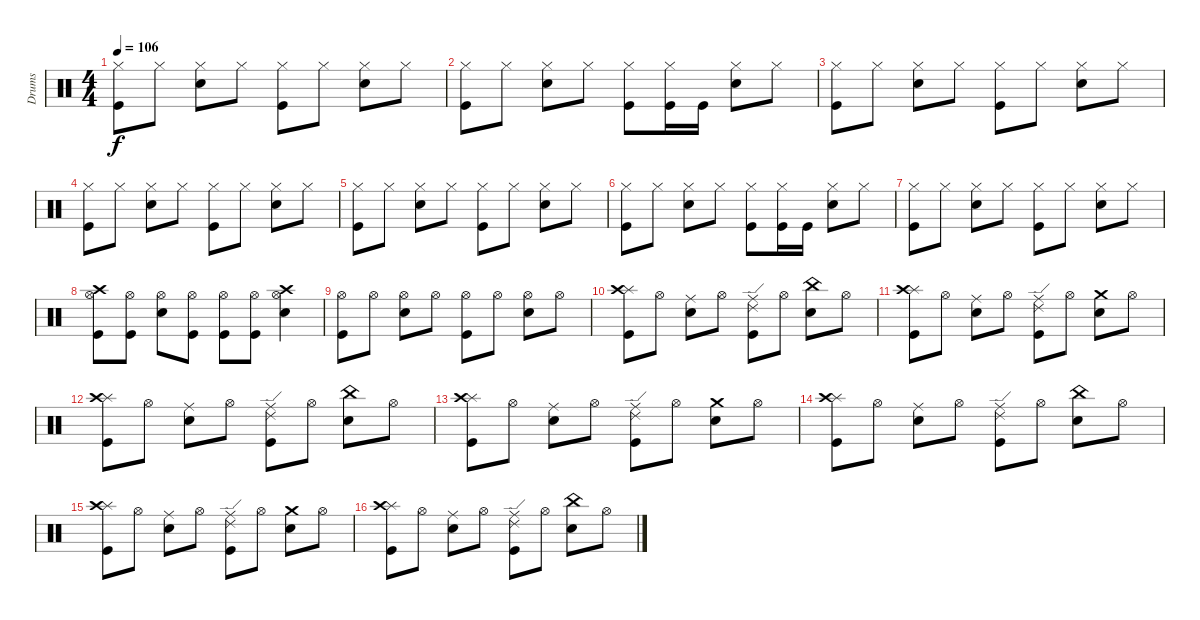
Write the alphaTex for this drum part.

\track ("Drums" "Drums") {instrument percussion}
\staff {score}
\articulation defaults
\ts (4 4)
\tempo 106
\clef neutral
\ks c
("Kick (hit)" "Hi-Hat (closed)").8{dy f volume 12} "Hi-Hat (closed)".8 ("Snare (hit) 2" "Hi-Hat (closed)").8 "Hi-Hat (closed)".8 ("Kick (hit)" "Hi-Hat (closed)").8 "Hi-Hat (closed)".8 ("Snare (hit) 2" "Hi-Hat (closed)").8 "Hi-Hat (closed)".8 |
("Kick (hit)" "Hi-Hat (closed)").8{volume 12} "Hi-Hat (closed)".8 ("Snare (hit) 2" "Hi-Hat (closed)").8 "Hi-Hat (closed)".8 ("Kick (hit)" "Hi-Hat (closed)").8 ("Kick (hit)" "Hi-Hat (closed)").16 "Kick (hit)".16 ("Snare (hit) 2" "Hi-Hat (closed)").8 "Hi-Hat (closed)".8 |
("Kick (hit)" "Hi-Hat (closed)").8{volume 12} "Hi-Hat (closed)".8 ("Snare (hit) 2" "Hi-Hat (closed)").8 "Hi-Hat (closed)".8 ("Kick (hit)" "Hi-Hat (closed)").8 "Hi-Hat (closed)".8 ("Snare (hit) 2" "Hi-Hat (closed)").8 "Hi-Hat (closed)".8 |
("Kick (hit)" "Hi-Hat (closed)").8{volume 12} "Hi-Hat (closed)".8 ("Snare (hit) 2" "Hi-Hat (closed)").8 "Hi-Hat (closed)".8 ("Kick (hit)" "Hi-Hat (closed)").8 "Hi-Hat (closed)".8 ("Snare (hit) 2" "Hi-Hat (closed)").8 "Hi-Hat (closed)".8 |
("Kick (hit)" "Hi-Hat (closed)").8{volume 12} "Hi-Hat (closed)".8 ("Snare (hit) 2" "Hi-Hat (closed)").8 "Hi-Hat (closed)".8 ("Kick (hit)" "Hi-Hat (closed)").8 "Hi-Hat (closed)".8 ("Snare (hit) 2" "Hi-Hat (closed)").8 "Hi-Hat (closed)".8 |
("Kick (hit)" "Hi-Hat (closed)").8{volume 12} "Hi-Hat (closed)".8 ("Snare (hit) 2" "Hi-Hat (closed)").8 "Hi-Hat (closed)".8 ("Kick (hit)" "Hi-Hat (closed)").8 ("Kick (hit)" "Hi-Hat (closed)").16 "Kick (hit)".16 ("Snare (hit) 2" "Hi-Hat (closed)").8 "Hi-Hat (closed)".8 |
("Kick (hit)" "Hi-Hat (closed)").8{volume 12} "Hi-Hat (closed)".8 ("Snare (hit) 2" "Hi-Hat (closed)").8 "Hi-Hat (closed)".8 ("Kick (hit)" "Hi-Hat (closed)").8 "Hi-Hat (closed)".8 ("Snare (hit) 2" "Hi-Hat (closed)").8 "Hi-Hat (closed)".8 |
("Kick (hit)" "Crash high (hit)" "Hi-Hat (open)").8{volume 12} ("Kick (hit)" "Hi-Hat (open)").8 ("Snare (hit) 2" "Hi-Hat (open)").8 ("Kick (hit)" "Hi-Hat (open)").8 ("Kick (hit)" "Hi-Hat (open)").8 ("Kick (hit)" "Hi-Hat (open)").8 ("Snare (hit) 2" "Crash high (hit)" "Hi-Hat (open)").4 |
("Kick (hit)" "Hi-Hat (open)").8{volume 12} "Hi-Hat (open)".8 ("Snare (hit) 2" "Hi-Hat (open)").8 "Hi-Hat (open)".8 ("Kick (hit)" "Hi-Hat (open)").8 "Hi-Hat (open)".8 ("Snare (hit) 2" "Hi-Hat (open)").8 "Hi-Hat (open)".8 |
("Kick (hit)" "Splash (hit)" "Crash high (hit)").8{volume 12} "Hi-Hat (open)".8 ("Snare (hit) 2" "Ride (middle)").8 "Hi-Hat (open)".8 ("Kick (hit)" "Ride (middle)" "Ride (edge) 2").8 "Hi-Hat (open)".8 ("Snare (hit) 2" "China (hit)").8 "Hi-Hat (open)".8 |
("Kick (hit)" "Splash (hit)" "Crash high (hit)").8{volume 12} "Hi-Hat (open)".8 ("Snare (hit) 2" "Ride (middle)").8 "Hi-Hat (open)".8 ("Kick (hit)" "Ride (middle)" "Ride (edge) 2").8 "Hi-Hat (open)".8 ("Snare (hit) 2" "Crash medium (hit)").8 "Hi-Hat (open)".8 |
("Kick (hit)" "Splash (hit)" "Crash high (hit)").8{volume 12} "Hi-Hat (open)".8 ("Snare (hit) 2" "Ride (middle)").8 "Hi-Hat (open)".8 ("Kick (hit)" "Ride (middle)" "Ride (edge) 2").8 "Hi-Hat (open)".8 ("Snare (hit) 2" "China (hit)").8 "Hi-Hat (open)".8 |
("Kick (hit)" "Splash (hit)" "Crash high (hit)").8{volume 12} "Hi-Hat (open)".8 ("Snare (hit) 2" "Ride (middle)").8 "Hi-Hat (open)".8 ("Kick (hit)" "Ride (middle)" "Ride (edge) 2").8 "Hi-Hat (open)".8 ("Snare (hit) 2" "Crash medium (hit)").8 "Hi-Hat (open)".8 |
("Kick (hit)" "Splash (hit)" "Crash high (hit)").8{volume 12} "Hi-Hat (open)".8 ("Snare (hit) 2" "Ride (middle)").8 "Hi-Hat (open)".8 ("Kick (hit)" "Ride (middle)" "Ride (edge) 2").8 "Hi-Hat (open)".8 ("Snare (hit) 2" "China (hit)").8 "Hi-Hat (open)".8 |
("Kick (hit)" "Splash (hit)" "Crash high (hit)").8{volume 12} "Hi-Hat (open)".8 ("Snare (hit) 2" "Ride (middle)").8 "Hi-Hat (open)".8 ("Kick (hit)" "Ride (middle)" "Ride (edge) 2").8 "Hi-Hat (open)".8 ("Snare (hit) 2" "Crash medium (hit)").8 "Hi-Hat (open)".8 |
("Kick (hit)" "Splash (hit)" "Crash high (hit)").8{volume 12} "Hi-Hat (open)".8 ("Snare (hit) 2" "Ride (middle)").8 "Hi-Hat (open)".8 ("Kick (hit)" "Ride (middle)" "Ride (edge) 2").8 "Hi-Hat (open)".8 ("Snare (hit) 2" "China (hit)").8 "Hi-Hat (open)".8
